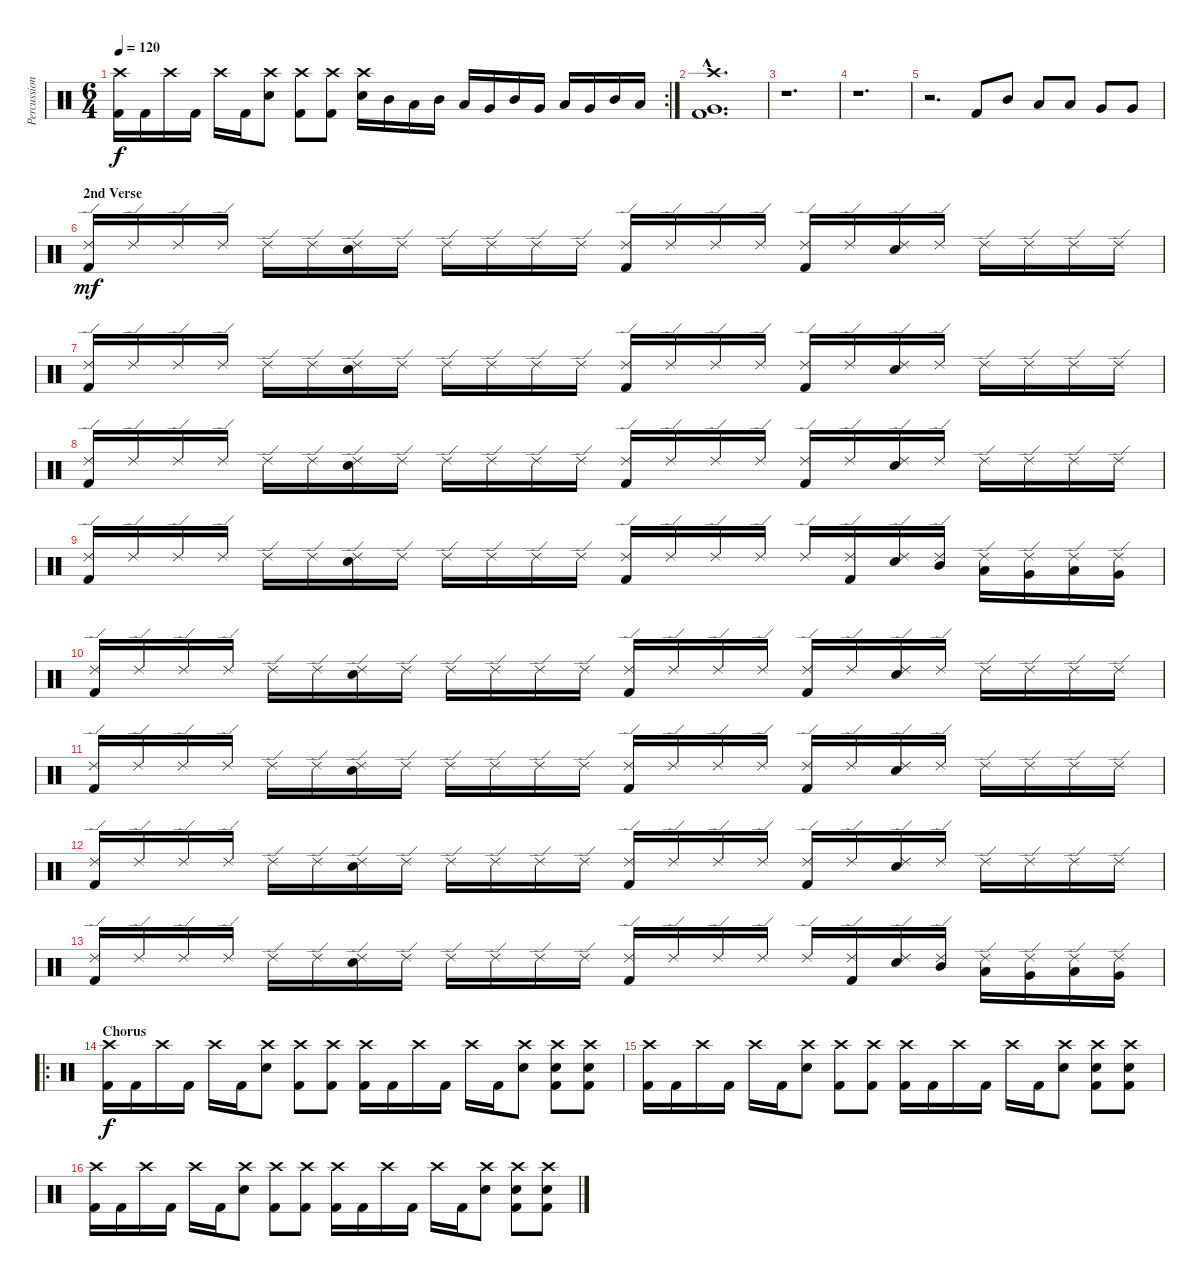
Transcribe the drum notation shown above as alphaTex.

\track ("Percussion" "Percussion") {instrument percussion}
\staff {score}
\articulation defaults
\rc 2
\ts (6 4)
\tempo 120
\clef neutral
\ks c
("Crash high (hit)" "Kick (hit) 2").16{dy f} "Kick (hit) 2".16 "Crash high (hit)".16 "Kick (hit) 2".16 "Crash high (hit)".16 "Kick (hit) 2".16 ("Crash high (hit)" "Snare (hit) 2").8 ("Crash high (hit)" "Kick (hit) 2").8 ("Crash high (hit)" "Kick (hit) 2").8 ("Crash high (hit)" "Snare (hit) 2").16 "Mid Tom (hit)".16 "Low Tom (hit)".16 "Mid Tom (hit)".16 "Low Tom (hit)".16 "Very Low Tom (hit)".16 "Mid Tom (hit)".16 "Very Low Tom (hit)".16 "Low Tom (hit)".16 "Very Low Tom (hit)".16 "Mid Tom (hit)".16 "Low Tom (hit)".16 |
("Crash high (hit)"{hac} "Very Low Tom (hit)"{hac} "Kick (hit) 2"{hac}).1{d} |
r.1{d} |
r.1{d} |
r.2{d} "Kick (hit) 2".8 "Mid Tom (hit)".8 "Low Tom (hit)".8 "Low Tom (hit)".8 "Very Low Tom (hit)".8 "Very Low Tom (hit)".8 |
\section ("" "2nd Verse")
("Ride (edge) 2" "Kick (hit) 2").16{dy mf} "Ride (edge) 2".16 "Ride (edge) 2".16 "Ride (edge) 2".16 "Ride (edge) 2".16 "Ride (edge) 2".16 ("Ride (edge) 2" "Snare (hit) 2").16 "Ride (edge) 2".16 "Ride (edge) 2".16 "Ride (edge) 2".16 "Ride (edge) 2".16 "Ride (edge) 2".16 ("Ride (edge) 2" "Kick (hit) 2").16 "Ride (edge) 2".16 "Ride (edge) 2".16 "Ride (edge) 2".16 ("Ride (edge) 2" "Kick (hit) 2").16 "Ride (edge) 2".16 ("Ride (edge) 2" "Snare (hit) 2").16 "Ride (edge) 2".16 "Ride (edge) 2".16 "Ride (edge) 2".16 "Ride (edge) 2".16 "Ride (edge) 2".16 |
("Ride (edge) 2" "Kick (hit) 2").16 "Ride (edge) 2".16 "Ride (edge) 2".16 "Ride (edge) 2".16 "Ride (edge) 2".16 "Ride (edge) 2".16 ("Ride (edge) 2" "Snare (hit) 2").16 "Ride (edge) 2".16 "Ride (edge) 2".16 "Ride (edge) 2".16 "Ride (edge) 2".16 "Ride (edge) 2".16 ("Ride (edge) 2" "Kick (hit) 2").16 "Ride (edge) 2".16 "Ride (edge) 2".16 "Ride (edge) 2".16 ("Ride (edge) 2" "Kick (hit) 2").16 "Ride (edge) 2".16 ("Ride (edge) 2" "Snare (hit) 2").16 "Ride (edge) 2".16 "Ride (edge) 2".16 "Ride (edge) 2".16 "Ride (edge) 2".16 "Ride (edge) 2".16 |
("Ride (edge) 2" "Kick (hit) 2").16 "Ride (edge) 2".16 "Ride (edge) 2".16 "Ride (edge) 2".16 "Ride (edge) 2".16 "Ride (edge) 2".16 ("Ride (edge) 2" "Snare (hit) 2").16 "Ride (edge) 2".16 "Ride (edge) 2".16 "Ride (edge) 2".16 "Ride (edge) 2".16 "Ride (edge) 2".16 ("Ride (edge) 2" "Kick (hit) 2").16 "Ride (edge) 2".16 "Ride (edge) 2".16 "Ride (edge) 2".16 ("Ride (edge) 2" "Kick (hit) 2").16 "Ride (edge) 2".16 ("Ride (edge) 2" "Snare (hit) 2").16 "Ride (edge) 2".16 "Ride (edge) 2".16 "Ride (edge) 2".16 "Ride (edge) 2".16 "Ride (edge) 2".16 |
("Ride (edge) 2" "Kick (hit) 2").16 "Ride (edge) 2".16 "Ride (edge) 2".16 "Ride (edge) 2".16 "Ride (edge) 2".16 "Ride (edge) 2".16 ("Ride (edge) 2" "Snare (hit) 2").16 "Ride (edge) 2".16 "Ride (edge) 2".16 "Ride (edge) 2".16 "Ride (edge) 2".16 "Ride (edge) 2".16 ("Ride (edge) 2" "Kick (hit) 2").16 "Ride (edge) 2".16 "Ride (edge) 2".16 "Ride (edge) 2".16 "Ride (edge) 2".16 ("Ride (edge) 2" "Kick (hit) 2").16 ("Ride (edge) 2" "Snare (hit) 2").16 ("Ride (edge) 2" "Mid Tom (hit)").16 ("Ride (edge) 2" "Low Tom (hit)").16 ("Ride (edge) 2" "Very Low Tom (hit)").16 ("Ride (edge) 2" "Low Tom (hit)").16 ("Ride (edge) 2" "Very Low Tom (hit)").16 |
("Ride (edge) 2" "Kick (hit) 2").16 "Ride (edge) 2".16 "Ride (edge) 2".16 "Ride (edge) 2".16 "Ride (edge) 2".16 "Ride (edge) 2".16 ("Ride (edge) 2" "Snare (hit) 2").16 "Ride (edge) 2".16 "Ride (edge) 2".16 "Ride (edge) 2".16 "Ride (edge) 2".16 "Ride (edge) 2".16 ("Ride (edge) 2" "Kick (hit) 2").16 "Ride (edge) 2".16 "Ride (edge) 2".16 "Ride (edge) 2".16 ("Ride (edge) 2" "Kick (hit) 2").16 "Ride (edge) 2".16 ("Ride (edge) 2" "Snare (hit) 2").16 "Ride (edge) 2".16 "Ride (edge) 2".16 "Ride (edge) 2".16 "Ride (edge) 2".16 "Ride (edge) 2".16 |
("Ride (edge) 2" "Kick (hit) 2").16 "Ride (edge) 2".16 "Ride (edge) 2".16 "Ride (edge) 2".16 "Ride (edge) 2".16 "Ride (edge) 2".16 ("Ride (edge) 2" "Snare (hit) 2").16 "Ride (edge) 2".16 "Ride (edge) 2".16 "Ride (edge) 2".16 "Ride (edge) 2".16 "Ride (edge) 2".16 ("Ride (edge) 2" "Kick (hit) 2").16 "Ride (edge) 2".16 "Ride (edge) 2".16 "Ride (edge) 2".16 ("Ride (edge) 2" "Kick (hit) 2").16 "Ride (edge) 2".16 ("Ride (edge) 2" "Snare (hit) 2").16 "Ride (edge) 2".16 "Ride (edge) 2".16 "Ride (edge) 2".16 "Ride (edge) 2".16 "Ride (edge) 2".16 |
("Ride (edge) 2" "Kick (hit) 2").16 "Ride (edge) 2".16 "Ride (edge) 2".16 "Ride (edge) 2".16 "Ride (edge) 2".16 "Ride (edge) 2".16 ("Ride (edge) 2" "Snare (hit) 2").16 "Ride (edge) 2".16 "Ride (edge) 2".16 "Ride (edge) 2".16 "Ride (edge) 2".16 "Ride (edge) 2".16 ("Ride (edge) 2" "Kick (hit) 2").16 "Ride (edge) 2".16 "Ride (edge) 2".16 "Ride (edge) 2".16 ("Ride (edge) 2" "Kick (hit) 2").16 "Ride (edge) 2".16 ("Ride (edge) 2" "Snare (hit) 2").16 "Ride (edge) 2".16 "Ride (edge) 2".16 "Ride (edge) 2".16 "Ride (edge) 2".16 "Ride (edge) 2".16 |
("Ride (edge) 2" "Kick (hit) 2").16 "Ride (edge) 2".16 "Ride (edge) 2".16 "Ride (edge) 2".16 "Ride (edge) 2".16 "Ride (edge) 2".16 ("Ride (edge) 2" "Snare (hit) 2").16 "Ride (edge) 2".16 "Ride (edge) 2".16 "Ride (edge) 2".16 "Ride (edge) 2".16 "Ride (edge) 2".16 ("Ride (edge) 2" "Kick (hit) 2").16 "Ride (edge) 2".16 "Ride (edge) 2".16 "Ride (edge) 2".16 "Ride (edge) 2".16 ("Ride (edge) 2" "Kick (hit) 2").16 ("Ride (edge) 2" "Snare (hit) 2").16 ("Ride (edge) 2" "Mid Tom (hit)").16 ("Ride (edge) 2" "Low Tom (hit)").16 ("Ride (edge) 2" "Very Low Tom (hit)").16 ("Ride (edge) 2" "Low Tom (hit)").16 ("Ride (edge) 2" "Very Low Tom (hit)").16 |
\ro
\section ("" "Chorus")
("Crash high (hit)" "Kick (hit) 2").16{dy f} "Kick (hit) 2".16 "Crash high (hit)".16 "Kick (hit) 2".16 "Crash high (hit)".16 "Kick (hit) 2".16 ("Crash high (hit)" "Snare (hit) 2").8 ("Crash high (hit)" "Kick (hit) 2").8 ("Crash high (hit)" "Kick (hit) 2").8 ("Crash high (hit)" "Kick (hit) 2").16 "Kick (hit) 2".16 "Crash high (hit)".16 "Kick (hit) 2".16 "Crash high (hit)".16 "Kick (hit) 2".16 ("Crash high (hit)" "Snare (hit) 2").8 ("Crash high (hit)" "Snare (hit) 2" "Kick (hit) 2").8 ("Crash high (hit)" "Snare (hit) 2" "Kick (hit) 2").8 |
("Crash high (hit)" "Kick (hit) 2").16 "Kick (hit) 2".16 "Crash high (hit)".16 "Kick (hit) 2".16 "Crash high (hit)".16 "Kick (hit) 2".16 ("Crash high (hit)" "Snare (hit) 2").8 ("Crash high (hit)" "Kick (hit) 2").8 ("Crash high (hit)" "Kick (hit) 2").8 ("Crash high (hit)" "Kick (hit) 2").16 "Kick (hit) 2".16 "Crash high (hit)".16 "Kick (hit) 2".16 "Crash high (hit)".16 "Kick (hit) 2".16 ("Crash high (hit)" "Snare (hit) 2").8 ("Crash high (hit)" "Snare (hit) 2" "Kick (hit) 2").8 ("Crash high (hit)" "Snare (hit) 2" "Kick (hit) 2").8 |
("Crash high (hit)" "Kick (hit) 2").16 "Kick (hit) 2".16 "Crash high (hit)".16 "Kick (hit) 2".16 "Crash high (hit)".16 "Kick (hit) 2".16 ("Crash high (hit)" "Snare (hit) 2").8 ("Crash high (hit)" "Kick (hit) 2").8 ("Crash high (hit)" "Kick (hit) 2").8 ("Crash high (hit)" "Kick (hit) 2").16 "Kick (hit) 2".16 "Crash high (hit)".16 "Kick (hit) 2".16 "Crash high (hit)".16 "Kick (hit) 2".16 ("Crash high (hit)" "Snare (hit) 2").8 ("Crash high (hit)" "Snare (hit) 2" "Kick (hit) 2").8 ("Crash high (hit)" "Snare (hit) 2" "Kick (hit) 2").8
